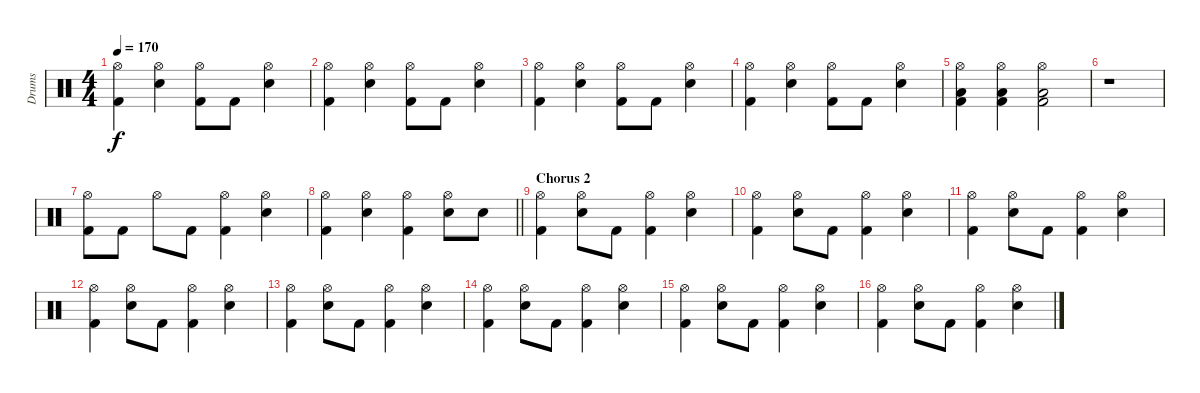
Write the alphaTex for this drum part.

\track ("Drums" "Drums") {instrument percussion}
\staff {score}
\articulation defaults
\ts (4 4)
\tempo 170
\clef neutral
\ks c
("Hi-Hat (open)" "Kick (hit) 2").4{dy f} ("Hi-Hat (open)" "Electric Snare (hit)").4 ("Hi-Hat (open)" "Kick (hit) 2").8 "Kick (hit) 2".8 ("Hi-Hat (open)" "Electric Snare (hit)").4 |
("Hi-Hat (open)" "Kick (hit) 2").4 ("Hi-Hat (open)" "Electric Snare (hit)").4 ("Hi-Hat (open)" "Kick (hit) 2").8 "Kick (hit) 2".8 ("Hi-Hat (open)" "Electric Snare (hit)").4 |
("Hi-Hat (open)" "Kick (hit) 2").4 ("Hi-Hat (open)" "Electric Snare (hit)").4 ("Hi-Hat (open)" "Kick (hit) 2").8 "Kick (hit) 2".8 ("Hi-Hat (open)" "Electric Snare (hit)").4 |
("Hi-Hat (open)" "Kick (hit) 2").4 ("Hi-Hat (open)" "Electric Snare (hit)").4 ("Hi-Hat (open)" "Kick (hit) 2").8 "Kick (hit) 2".8 ("Hi-Hat (open)" "Electric Snare (hit)").4 |
("Hi-Hat (open)" "Low Floor Tom (hit)" "Kick (hit) 2").4 ("Hi-Hat (open)" "Low Floor Tom (hit)" "Kick (hit) 2").4 ("Hi-Hat (open)" "Low Floor Tom (hit)" "Kick (hit) 2").2 |
r.1 |
("Hi-Hat (open)" "Kick (hit) 2").8 "Kick (hit) 2".8 "Hi-Hat (open)".8 "Kick (hit) 2".8 ("Hi-Hat (open)" "Kick (hit) 2").4 ("Hi-Hat (open)" "Electric Snare (hit)").4 |
\barLineRight lightlight
("Hi-Hat (open)" "Kick (hit) 2").4 ("Hi-Hat (open)" "Electric Snare (hit)").4 ("Hi-Hat (open)" "Kick (hit) 2").4 ("Hi-Hat (open)" "Electric Snare (hit)").8 "Electric Snare (hit)".8 |
\section ("" "Chorus 2")
("Hi-Hat (open)" "Kick (hit) 2").4 ("Hi-Hat (open)" "Electric Snare (hit)").8 "Kick (hit) 2".8 ("Hi-Hat (open)" "Kick (hit) 2").4 ("Hi-Hat (open)" "Electric Snare (hit)").4 |
("Hi-Hat (open)" "Kick (hit) 2").4 ("Hi-Hat (open)" "Electric Snare (hit)").8 "Kick (hit) 2".8 ("Hi-Hat (open)" "Kick (hit) 2").4 ("Hi-Hat (open)" "Electric Snare (hit)").4 |
("Hi-Hat (open)" "Kick (hit) 2").4 ("Hi-Hat (open)" "Electric Snare (hit)").8 "Kick (hit) 2".8 ("Hi-Hat (open)" "Kick (hit) 2").4 ("Hi-Hat (open)" "Electric Snare (hit)").4 |
("Hi-Hat (open)" "Kick (hit) 2").4 ("Hi-Hat (open)" "Electric Snare (hit)").8 "Kick (hit) 2".8 ("Hi-Hat (open)" "Kick (hit) 2").4 ("Hi-Hat (open)" "Electric Snare (hit)").4 |
("Hi-Hat (open)" "Kick (hit) 2").4 ("Hi-Hat (open)" "Electric Snare (hit)").8 "Kick (hit) 2".8 ("Hi-Hat (open)" "Kick (hit) 2").4 ("Hi-Hat (open)" "Electric Snare (hit)").4 |
("Hi-Hat (open)" "Kick (hit) 2").4 ("Hi-Hat (open)" "Electric Snare (hit)").8 "Kick (hit) 2".8 ("Hi-Hat (open)" "Kick (hit) 2").4 ("Hi-Hat (open)" "Electric Snare (hit)").4 |
("Hi-Hat (open)" "Kick (hit) 2").4 ("Hi-Hat (open)" "Electric Snare (hit)").8 "Kick (hit) 2".8 ("Hi-Hat (open)" "Kick (hit) 2").4 ("Hi-Hat (open)" "Electric Snare (hit)").4 |
("Hi-Hat (open)" "Kick (hit) 2").4 ("Hi-Hat (open)" "Electric Snare (hit)").8 "Kick (hit) 2".8 ("Hi-Hat (open)" "Kick (hit) 2").4 ("Hi-Hat (open)" "Electric Snare (hit)").4
